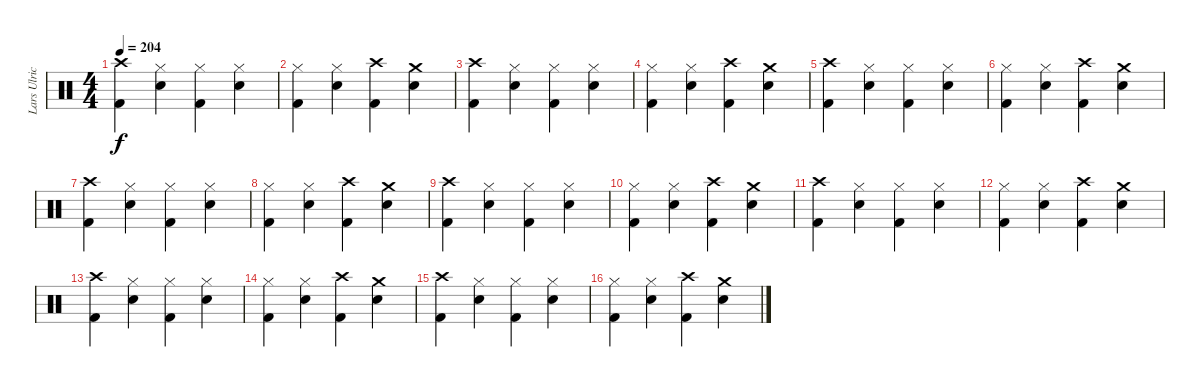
\track ("Lars Ulrich (Drums)" "Lars Ulric") {instrument percussion}
\staff {score}
\articulation defaults
\ts (4 4)
\tempo 204
\clef neutral
\ks c
("Crash high (hit)" "Kick (hit) 2").4{dy f} ("Hi-Hat (closed)" "Electric Snare (hit)").4 ("Hi-Hat (closed)" "Kick (hit) 2").4 ("Hi-Hat (closed)" "Electric Snare (hit)").4 |
("Hi-Hat (closed)" "Kick (hit) 2").4 ("Hi-Hat (closed)" "Electric Snare (hit)").4 ("Crash high (hit)" "Kick (hit) 2").4 ("Crash medium (hit)" "Electric Snare (hit)").4 |
("Crash high (hit)" "Kick (hit) 2").4 ("Hi-Hat (closed)" "Electric Snare (hit)").4 ("Hi-Hat (closed)" "Kick (hit) 2").4 ("Hi-Hat (closed)" "Electric Snare (hit)").4 |
("Hi-Hat (closed)" "Kick (hit) 2").4 ("Hi-Hat (closed)" "Electric Snare (hit)").4 ("Crash high (hit)" "Kick (hit) 2").4 ("Crash medium (hit)" "Electric Snare (hit)").4 |
("Crash high (hit)" "Kick (hit) 2").4 ("Hi-Hat (closed)" "Electric Snare (hit)").4 ("Hi-Hat (closed)" "Kick (hit) 2").4 ("Hi-Hat (closed)" "Electric Snare (hit)").4 |
("Hi-Hat (closed)" "Kick (hit) 2").4 ("Hi-Hat (closed)" "Electric Snare (hit)").4 ("Crash high (hit)" "Kick (hit) 2").4 ("Crash medium (hit)" "Electric Snare (hit)").4 |
("Crash high (hit)" "Kick (hit) 2").4 ("Hi-Hat (closed)" "Electric Snare (hit)").4 ("Hi-Hat (closed)" "Kick (hit) 2").4 ("Hi-Hat (closed)" "Electric Snare (hit)").4 |
("Hi-Hat (closed)" "Kick (hit) 2").4 ("Hi-Hat (closed)" "Electric Snare (hit)").4 ("Crash high (hit)" "Kick (hit) 2").4 ("Crash medium (hit)" "Electric Snare (hit)").4 |
("Crash high (hit)" "Kick (hit) 2").4 ("Hi-Hat (closed)" "Electric Snare (hit)").4 ("Hi-Hat (closed)" "Kick (hit) 2").4 ("Hi-Hat (closed)" "Electric Snare (hit)").4 |
("Hi-Hat (closed)" "Kick (hit) 2").4 ("Hi-Hat (closed)" "Electric Snare (hit)").4 ("Crash high (hit)" "Kick (hit) 2").4 ("Crash medium (hit)" "Electric Snare (hit)").4 |
("Crash high (hit)" "Kick (hit) 2").4 ("Hi-Hat (closed)" "Electric Snare (hit)").4 ("Hi-Hat (closed)" "Kick (hit) 2").4 ("Hi-Hat (closed)" "Electric Snare (hit)").4 |
("Hi-Hat (closed)" "Kick (hit) 2").4 ("Hi-Hat (closed)" "Electric Snare (hit)").4 ("Crash high (hit)" "Kick (hit) 2").4 ("Crash medium (hit)" "Electric Snare (hit)").4 |
("Crash high (hit)" "Kick (hit) 2").4 ("Hi-Hat (closed)" "Electric Snare (hit)").4 ("Hi-Hat (closed)" "Kick (hit) 2").4 ("Hi-Hat (closed)" "Electric Snare (hit)").4 |
("Hi-Hat (closed)" "Kick (hit) 2").4 ("Hi-Hat (closed)" "Electric Snare (hit)").4 ("Crash high (hit)" "Kick (hit) 2").4 ("Crash medium (hit)" "Electric Snare (hit)").4 |
("Crash high (hit)" "Kick (hit) 2").4 ("Hi-Hat (closed)" "Electric Snare (hit)").4 ("Hi-Hat (closed)" "Kick (hit) 2").4 ("Hi-Hat (closed)" "Electric Snare (hit)").4 |
("Hi-Hat (closed)" "Kick (hit) 2").4 ("Hi-Hat (closed)" "Electric Snare (hit)").4 ("Crash high (hit)" "Kick (hit) 2").4 ("Crash medium (hit)" "Electric Snare (hit)").4
